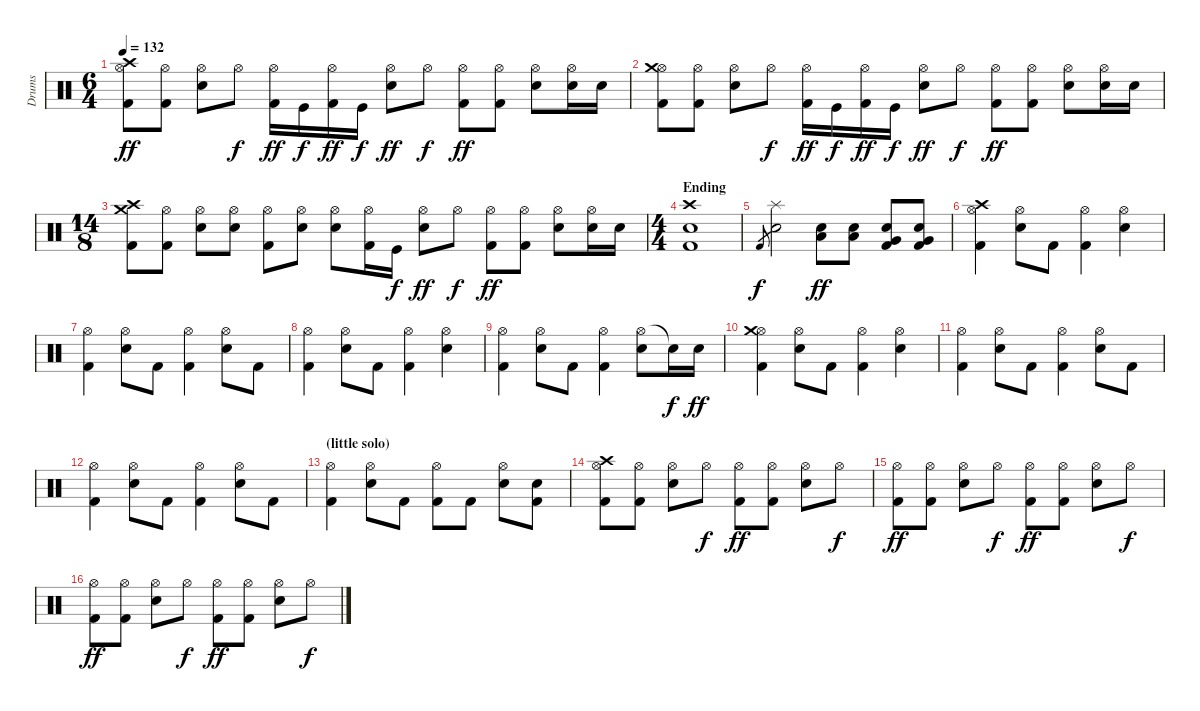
\track ("Drums" "Drums") {instrument percussion}
\staff {score}
\articulation defaults
\ts (6 4)
\tempo 132
\clef neutral
\ks c
("Hi-Hat (open)" "Crash high (hit)" "Kick (hit) 2").8{dy ff} ("Hi-Hat (open)" "Kick (hit) 2").8 ("Hi-Hat (open)" "Electric Snare (hit)").8 "Hi-Hat (open)".8{dy f} ("Hi-Hat (open)" "Kick (hit) 2").16{dy ff} "Kick (hit)".16{dy f} ("Hi-Hat (open)" "Kick (hit) 2").16{dy ff} "Kick (hit)".16{dy f} ("Hi-Hat (open)" "Electric Snare (hit)").8{dy ff} "Hi-Hat (open)".8{dy f} ("Hi-Hat (open)" "Kick (hit) 2").8{dy ff} ("Hi-Hat (open)" "Kick (hit) 2").8 ("Hi-Hat (open)" "Electric Snare (hit)").8 ("Hi-Hat (open)" "Electric Snare (hit)").16 "Electric Snare (hit)".16 |
("Hi-Hat (open)" "Crash medium (hit)" "Kick (hit) 2").8 ("Hi-Hat (open)" "Kick (hit) 2").8 ("Hi-Hat (open)" "Electric Snare (hit)").8 "Hi-Hat (open)".8{dy f} ("Hi-Hat (open)" "Kick (hit) 2").16{dy ff} "Kick (hit)".16{dy f} ("Hi-Hat (open)" "Kick (hit) 2").16{dy ff} "Kick (hit)".16{dy f} ("Hi-Hat (open)" "Electric Snare (hit)").8{dy ff} "Hi-Hat (open)".8{dy f} ("Hi-Hat (open)" "Kick (hit) 2").8{dy ff} ("Hi-Hat (open)" "Kick (hit) 2").8 ("Hi-Hat (open)" "Electric Snare (hit)").8 ("Hi-Hat (open)" "Electric Snare (hit)").16 "Electric Snare (hit)".16 |
\ts (14 8)
("Crash high (hit)" "Crash medium (hit)" "Kick (hit) 2").8 ("Hi-Hat (open)" "Kick (hit) 2").8 ("Hi-Hat (open)" "Electric Snare (hit)").8 ("Hi-Hat (open)" "Electric Snare (hit)").8 ("Hi-Hat (open)" "Kick (hit) 2").8 ("Hi-Hat (open)" "Electric Snare (hit)").8 ("Hi-Hat (open)" "Electric Snare (hit)").8 ("Hi-Hat (open)" "Kick (hit) 2").16 "Kick (hit)".16{dy f} ("Hi-Hat (open)" "Electric Snare (hit)").8{dy ff} "Hi-Hat (open)".8{dy f} ("Hi-Hat (open)" "Kick (hit) 2").8{dy ff} ("Hi-Hat (open)" "Kick (hit) 2").8 ("Hi-Hat (open)" "Electric Snare (hit)").8 ("Hi-Hat (open)" "Electric Snare (hit)").16 "Electric Snare (hit)".16 |
\ts (4 4)
\section ("" "Ending")
("Crash high (hit)" "Electric Snare (hit)" "Kick (hit) 2").1 |
"Kick (hit) 2".8{gr dy f} ("Splash (hit)" "Electric Snare (hit)").2 ("Low Tom (hit)" "Electric Snare (hit)").8{dy ff} ("Low Tom (hit)" "Electric Snare (hit)").8 ("Very Low Tom (hit)" "Electric Snare (hit)" "Kick (hit) 2").8 ("Very Low Tom (hit)" "Electric Snare (hit)" "Kick (hit) 2").8 |
("Hi-Hat (open)" "Crash high (hit)" "Kick (hit) 2").4 ("Hi-Hat (open)" "Electric Snare (hit)").8 "Kick (hit) 2".8 ("Hi-Hat (open)" "Kick (hit) 2").4 ("Hi-Hat (open)" "Electric Snare (hit)").4 |
("Hi-Hat (open)" "Kick (hit) 2").4 ("Hi-Hat (open)" "Electric Snare (hit)").8 "Kick (hit) 2".8 ("Hi-Hat (open)" "Kick (hit) 2").4 ("Hi-Hat (open)" "Electric Snare (hit)").8 "Kick (hit) 2".8 |
("Hi-Hat (open)" "Kick (hit) 2").4 ("Hi-Hat (open)" "Electric Snare (hit)").8 "Kick (hit) 2".8 ("Hi-Hat (open)" "Kick (hit) 2").4 ("Hi-Hat (open)" "Electric Snare (hit)").4 |
("Hi-Hat (open)" "Kick (hit) 2").4 ("Hi-Hat (open)" "Electric Snare (hit)").8 "Kick (hit) 2".8 ("Hi-Hat (open)" "Kick (hit) 2").4 ("Hi-Hat (open)" "Electric Snare (hit)").8 "Snare (hit)"{t}.16{dy f} "Electric Snare (hit)".16{dy ff} |
("Hi-Hat (open)" "Crash medium (hit)" "Kick (hit) 2").4 ("Hi-Hat (open)" "Electric Snare (hit)").8 "Kick (hit) 2".8 ("Hi-Hat (open)" "Kick (hit) 2").4 ("Hi-Hat (open)" "Electric Snare (hit)").4 |
("Hi-Hat (open)" "Kick (hit) 2").4 ("Hi-Hat (open)" "Electric Snare (hit)").8 "Kick (hit) 2".8 ("Hi-Hat (open)" "Kick (hit) 2").4 ("Hi-Hat (open)" "Electric Snare (hit)").8 "Kick (hit) 2".8 |
("Hi-Hat (open)" "Kick (hit) 2").4 ("Hi-Hat (open)" "Electric Snare (hit)").8 "Kick (hit) 2".8 ("Hi-Hat (open)" "Kick (hit) 2").4 ("Hi-Hat (open)" "Electric Snare (hit)").8 "Kick (hit) 2".8 |
\section ("" "(little solo)")
("Hi-Hat (open)" "Kick (hit) 2").4 ("Hi-Hat (open)" "Electric Snare (hit)").8 "Kick (hit) 2".8 ("Hi-Hat (open)" "Kick (hit) 2").8 "Kick (hit) 2".8 ("Hi-Hat (open)" "Electric Snare (hit)").8 ("Electric Snare (hit)" "Kick (hit) 2").8 |
("Hi-Hat (open)" "Crash high (hit)" "Kick (hit) 2").8 ("Hi-Hat (open)" "Kick (hit) 2").8 ("Hi-Hat (open)" "Electric Snare (hit)").8 "Hi-Hat (open)".8{dy f} ("Hi-Hat (open)" "Kick (hit) 2").8{dy ff} ("Hi-Hat (open)" "Kick (hit) 2").8 ("Hi-Hat (open)" "Electric Snare (hit)").8 "Hi-Hat (open)".8{dy f} |
("Hi-Hat (open)" "Kick (hit) 2").8{dy ff} ("Hi-Hat (open)" "Kick (hit) 2").8 ("Hi-Hat (open)" "Electric Snare (hit)").8 "Hi-Hat (open)".8{dy f} ("Hi-Hat (open)" "Kick (hit) 2").8{dy ff} ("Hi-Hat (open)" "Kick (hit) 2").8 ("Hi-Hat (open)" "Electric Snare (hit)").8 "Hi-Hat (open)".8{dy f} |
("Hi-Hat (open)" "Kick (hit) 2").8{dy ff} ("Hi-Hat (open)" "Kick (hit) 2").8 ("Hi-Hat (open)" "Electric Snare (hit)").8 "Hi-Hat (open)".8{dy f} ("Hi-Hat (open)" "Kick (hit) 2").8{dy ff} ("Hi-Hat (open)" "Kick (hit) 2").8 ("Hi-Hat (open)" "Electric Snare (hit)").8 "Hi-Hat (open)".8{dy f}
